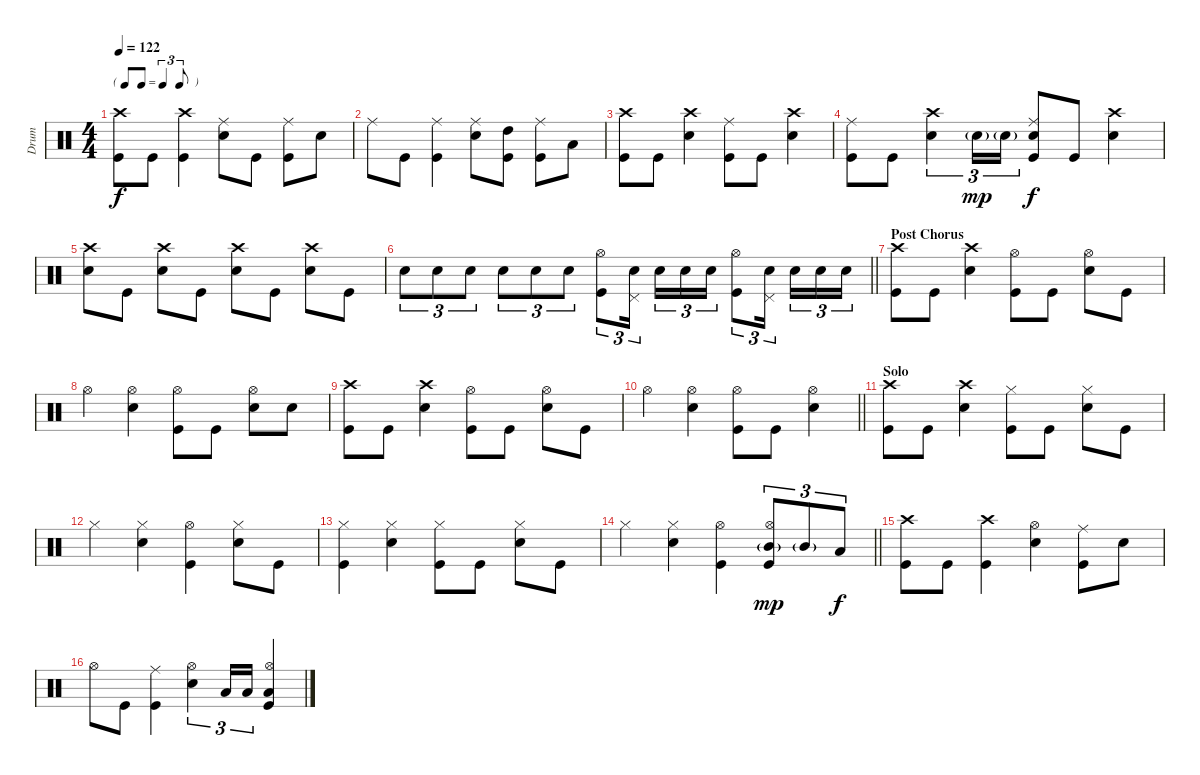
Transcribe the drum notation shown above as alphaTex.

\track ("Drum" "Drum") {instrument percussion}
\staff {score}
\articulation defaults
\ts (4 4)
\tf triplet8th
\tempo 122
\clef neutral
\ks c
("Crash high (hit)" "Kick (hit)").8{dy f} "Kick (hit)".8 ("Crash high (hit)" "Kick (hit)").4 ("Ride (middle)" "Electric Snare (hit)").8 "Kick (hit)".8 ("Ride (middle)" "Kick (hit)").8 "Electric Snare (hit)".8 |
"Ride (middle)".8 "Kick (hit)".8 ("Ride (middle)" "Kick (hit)").4 ("Ride (middle)" "Electric Snare (hit)").8 ("High Tom (hit)" "Kick (hit)").8 ("Ride (middle)" "Kick (hit)").8 "Low Tom (hit)".8 |
("Crash high (hit)" "Kick (hit)").8 "Kick (hit)".8 ("Crash high (hit)" "Electric Snare (hit)").4 ("Ride (middle)" "Kick (hit)").8 "Kick (hit)".8 ("Crash high (hit)" "Electric Snare (hit)").4 |
("Ride (middle)" "Kick (hit)").8 "Kick (hit)".8 ("Crash high (hit)" "Electric Snare (hit)").4{tu (3 2)} "Electric Snare (hit)"{g}.16{tu (3 2) dy mp} "Electric Snare (hit)"{g}.16{tu (3 2)} ("Ride (middle)" "Electric Snare (hit)" "Kick (hit)").8{dy f} "Kick (hit)".8 ("Crash high (hit)" "Electric Snare (hit)").4 |
("Crash high (hit)" "Electric Snare (hit)").8 "Kick (hit)".8 ("Crash high (hit)" "Electric Snare (hit)").8 "Kick (hit)".8 ("Crash high (hit)" "Electric Snare (hit)").8 "Kick (hit)".8 ("Crash high (hit)" "Electric Snare (hit)").8 "Kick (hit)".8 |
\barLineRight lightlight "Electric Snare (hit)".8{tu (3 2)} "Electric Snare (hit)".8{tu (3 2)} "Electric Snare (hit)".8{tu (3 2)} "Electric Snare (hit)".8{tu (3 2)} "Electric Snare (hit)".8{tu (3 2)} "Electric Snare (hit)".8{tu (3 2)}
("Hi-Hat (open)" "Kick (hit)").8{tu (3 2)} ("Pedal Hi-Hat (hit)" "Electric Snare (hit)").16{tu (3 2)} "Electric Snare (hit)".16{tu (3 2)} "Electric Snare (hit)".16{tu (3 2)} "Electric Snare (hit)".16{tu (3 2)} ("Hi-Hat (open)" "Kick (hit)").8{tu (3 2)} ("Pedal Hi-Hat (hit)" "Electric Snare (hit)").16{tu (3 2)} "Electric Snare (hit)".16{tu (3 2)} "Electric Snare (hit)".16{tu (3 2)} "Electric Snare (hit)".16{tu (3 2)} |
\section ("" "Post Chorus")
("Crash high (hit)" "Kick (hit)").8 "Kick (hit)".8 ("Crash high (hit)" "Electric Snare (hit)").4 ("Hi-Hat (open)" "Kick (hit)").8 "Kick (hit)".8 ("Hi-Hat (open)" "Electric Snare (hit)").8 "Kick (hit)".8 |
"Hi-Hat (open)".4 ("Hi-Hat (open)" "Electric Snare (hit)").4 ("Hi-Hat (open)" "Kick (hit)").8 "Kick (hit)".8 ("Hi-Hat (open)" "Electric Snare (hit)").8 "Electric Snare (hit)".8 |
("Crash high (hit)" "Kick (hit)").8 "Kick (hit)".8 ("Crash high (hit)" "Electric Snare (hit)").4 ("Hi-Hat (open)" "Kick (hit)").8 "Kick (hit)".8 ("Hi-Hat (open)" "Electric Snare (hit)").8 "Kick (hit)".8 |
\barLineRight lightlight "Hi-Hat (open)".4
("Hi-Hat (open)" "Electric Snare (hit)").4 ("Hi-Hat (open)" "Kick (hit)").8 "Kick (hit)".8 ("Hi-Hat (open)" "Electric Snare (hit)").4 |
\section ("" "Solo")
("Crash high (hit)" "Kick (hit)").8 "Kick (hit)".8 ("Crash high (hit)" "Electric Snare (hit)").4 ("Hi-Hat (closed)" "Kick (hit)").8 "Kick (hit)".8 ("Hi-Hat (closed)" "Electric Snare (hit)").8 "Kick (hit)".8 |
"Hi-Hat (closed)".4 ("Hi-Hat (closed)" "Electric Snare (hit)").4 ("Hi-Hat (open)" "Kick (hit)").4 ("Hi-Hat (closed)" "Electric Snare (hit)").8 "Kick (hit)".8 |
("Hi-Hat (closed)" "Kick (hit)").4 ("Hi-Hat (closed)" "Electric Snare (hit)").4 ("Hi-Hat (closed)" "Kick (hit)").8 "Kick (hit)".8 ("Hi-Hat (closed)" "Electric Snare (hit)").8 "Kick (hit)".8 |
\barLineRight lightlight "Hi-Hat (closed)".4
("Hi-Hat (closed)" "Electric Snare (hit)").4 ("Hi-Hat (open)" "Kick (hit)").4 ("Hi-Hat (open)" "Mid Tom (hit)"{g} "Kick (hit)").8{tu (3 2) dy mp} "Mid Tom (hit)"{g}.8{tu (3 2)} "Low Tom (hit)".8{tu (3 2) dy f} |
("Crash high (hit)" "Kick (hit)").8 "Kick (hit)".8 ("Crash high (hit)" "Kick (hit)").4 ("Hi-Hat (open)" "Electric Snare (hit)").4 ("Ride (middle)" "Kick (hit)").8 "Electric Snare (hit)".8 |
"Hi-Hat (open)".8 "Kick (hit)".8 ("Ride (middle)" "Kick (hit)").4 ("Hi-Hat (open)" "Electric Snare (hit)").4{tu (3 2)} "Low Tom (hit)".16{tu (3 2)} "Low Tom (hit)".16{tu (3 2)} ("Hi-Hat (open)" "Low Floor Tom (hit)" "Kick (hit)").4
